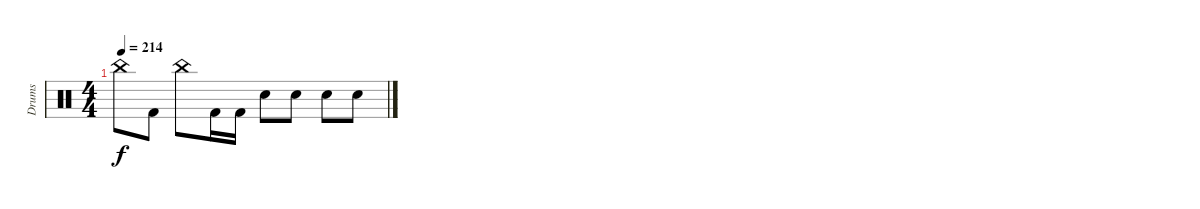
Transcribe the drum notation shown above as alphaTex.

\track ("Drums" "Drums") {instrument percussion}
\staff {score}
\articulation defaults
\ts (4 4)
\tempo 214
\clef neutral
\ks c "China (hit)".8{dy f} "Kick (hit) 2".8 "China (hit)".8 "Kick (hit) 2".16 "Kick (hit) 2".16 "Snare (hit) 2".8 "Snare (hit) 2".8 "Snare (hit) 2".8 "Snare (hit) 2".8
